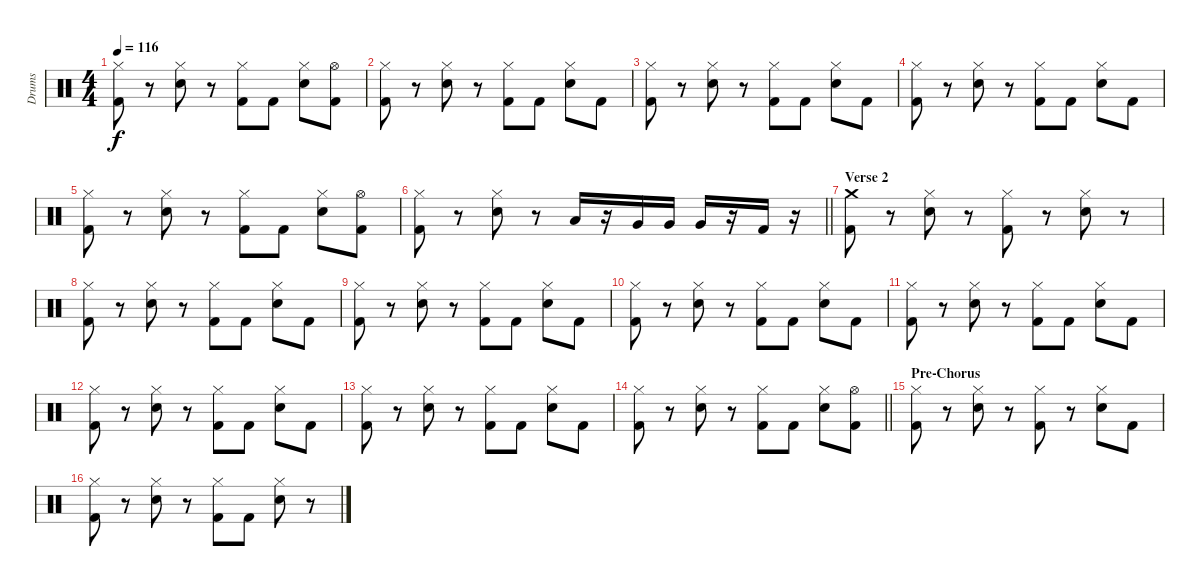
\track ("Drums" "Drums") {instrument percussion}
\staff {score}
\articulation defaults
\ts (4 4)
\tempo 116
\clef neutral
\ks c
("Hi-Hat (closed)" "Kick (hit) 2").8{dy f} r.8 ("Hi-Hat (closed)" "Snare (hit) 2").8 r.8 ("Hi-Hat (closed)" "Kick (hit) 2").8 "Kick (hit) 2".8 ("Hi-Hat (closed)" "Snare (hit) 2").8 ("Hi-Hat (open)" "Kick (hit) 2").8 |
("Hi-Hat (closed)" "Kick (hit) 2").8 r.8 ("Hi-Hat (closed)" "Snare (hit) 2").8 r.8 ("Hi-Hat (closed)" "Kick (hit) 2").8 "Kick (hit) 2".8 ("Hi-Hat (closed)" "Snare (hit) 2").8 "Kick (hit) 2".8 |
("Hi-Hat (closed)" "Kick (hit) 2").8 r.8 ("Hi-Hat (closed)" "Snare (hit) 2").8 r.8 ("Hi-Hat (closed)" "Kick (hit) 2").8 "Kick (hit) 2".8 ("Hi-Hat (closed)" "Snare (hit) 2").8 "Kick (hit) 2".8 |
("Hi-Hat (closed)" "Kick (hit) 2").8 r.8 ("Hi-Hat (closed)" "Snare (hit) 2").8 r.8 ("Hi-Hat (closed)" "Kick (hit) 2").8 "Kick (hit) 2".8 ("Hi-Hat (closed)" "Snare (hit) 2").8 "Kick (hit) 2".8 |
("Hi-Hat (closed)" "Kick (hit) 2").8 r.8 ("Hi-Hat (closed)" "Snare (hit) 2").8 r.8 ("Hi-Hat (closed)" "Kick (hit) 2").8 "Kick (hit) 2".8 ("Hi-Hat (closed)" "Snare (hit) 2").8 ("Hi-Hat (open)" "Kick (hit) 2").8 |
\barLineRight lightlight
("Hi-Hat (closed)" "Kick (hit) 2").8 r.8 ("Hi-Hat (closed)" "Snare (hit) 2").8 r.8 "Low Tom (hit)".16 r.16 "Very Low Tom (hit)".16 "Very Low Tom (hit)".16 "Very Low Tom (hit)".16 r.16 "Kick (hit) 2".16 r.16 |
\section ("" "Verse 2")
("Crash medium (hit)" "Kick (hit) 2").8 r.8 ("Hi-Hat (closed)" "Snare (hit) 2").8 r.8 ("Hi-Hat (closed)" "Kick (hit) 2").8 r.8 ("Hi-Hat (closed)" "Snare (hit) 2").8 r.8 |
("Hi-Hat (closed)" "Kick (hit) 2").8 r.8 ("Hi-Hat (closed)" "Snare (hit) 2").8 r.8 ("Hi-Hat (closed)" "Kick (hit) 2").8 "Kick (hit) 2".8 ("Hi-Hat (closed)" "Snare (hit) 2").8 "Kick (hit) 2".8 |
("Hi-Hat (closed)" "Kick (hit) 2").8 r.8 ("Hi-Hat (closed)" "Snare (hit) 2").8 r.8 ("Hi-Hat (closed)" "Kick (hit) 2").8 "Kick (hit) 2".8 ("Hi-Hat (closed)" "Snare (hit) 2").8 "Kick (hit) 2".8 |
("Hi-Hat (closed)" "Kick (hit) 2").8 r.8 ("Hi-Hat (closed)" "Snare (hit) 2").8 r.8 ("Hi-Hat (closed)" "Kick (hit) 2").8 "Kick (hit) 2".8 ("Hi-Hat (closed)" "Snare (hit) 2").8 "Kick (hit) 2".8 |
("Hi-Hat (closed)" "Kick (hit) 2").8 r.8 ("Hi-Hat (closed)" "Snare (hit) 2").8 r.8 ("Hi-Hat (closed)" "Kick (hit) 2").8 "Kick (hit) 2".8 ("Hi-Hat (closed)" "Snare (hit) 2").8 "Kick (hit) 2".8 |
("Hi-Hat (closed)" "Kick (hit) 2").8 r.8 ("Hi-Hat (closed)" "Snare (hit) 2").8 r.8 ("Hi-Hat (closed)" "Kick (hit) 2").8 "Kick (hit) 2".8 ("Hi-Hat (closed)" "Snare (hit) 2").8 "Kick (hit) 2".8 |
("Hi-Hat (closed)" "Kick (hit) 2").8 r.8 ("Hi-Hat (closed)" "Snare (hit) 2").8 r.8 ("Hi-Hat (closed)" "Kick (hit) 2").8 "Kick (hit) 2".8 ("Hi-Hat (closed)" "Snare (hit) 2").8 "Kick (hit) 2".8 |
\barLineRight lightlight
("Hi-Hat (closed)" "Kick (hit) 2").8 r.8 ("Hi-Hat (closed)" "Snare (hit) 2").8 r.8 ("Hi-Hat (closed)" "Kick (hit) 2").8 "Kick (hit) 2".8 ("Hi-Hat (closed)" "Snare (hit) 2").8 ("Hi-Hat (open)" "Kick (hit) 2").8 |
\section ("" "Pre-Chorus")
("Hi-Hat (closed)" "Kick (hit) 2").8 r.8 ("Hi-Hat (closed)" "Snare (hit) 2").8 r.8 ("Hi-Hat (closed)" "Kick (hit) 2").8 r.8 ("Hi-Hat (closed)" "Snare (hit) 2").8 "Kick (hit) 2".8 |
("Hi-Hat (closed)" "Kick (hit) 2").8 r.8 ("Hi-Hat (closed)" "Snare (hit) 2").8 r.8 ("Hi-Hat (closed)" "Kick (hit) 2").8 "Kick (hit) 2".8 ("Hi-Hat (closed)" "Snare (hit) 2").8 r.8
